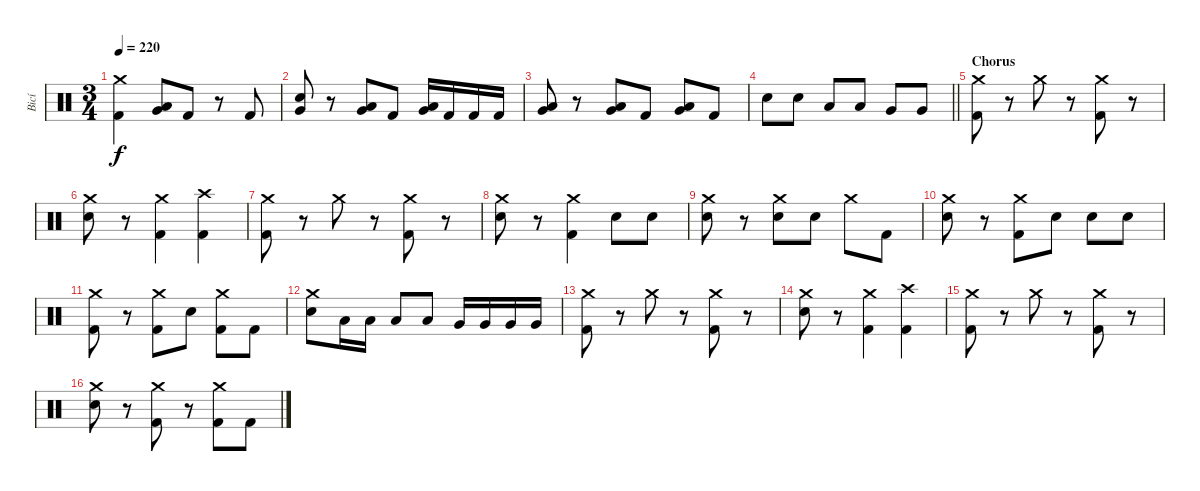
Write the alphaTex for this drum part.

\track ("Bicí" "Bicí") {instrument percussion}
\staff {score}
\articulation defaults
\ts (3 4)
\tempo 220
\clef neutral
\ks c
("Crash medium (hit)" "Kick (hit) 2").4{dy f} ("Low Tom (hit)" "Very Low Tom (hit)").8 "Kick (hit) 2".8 r.8 "Kick (hit) 2".8 |
("Electric Snare (hit)" "Very Low Tom (hit)").8 r.8 ("Low Tom (hit)" "Very Low Tom (hit)").8 "Kick (hit) 2".8 ("Low Tom (hit)" "Very Low Tom (hit)").16 "Kick (hit) 2".16 "Kick (hit) 2".16 "Kick (hit) 2".16 |
("Low Tom (hit)" "Very Low Tom (hit)").8 r.8 ("Low Tom (hit)" "Very Low Tom (hit)").8 "Kick (hit) 2".8 ("Low Tom (hit)" "Very Low Tom (hit)").8 "Kick (hit) 2".8 |
\barLineRight lightlight "Electric Snare (hit)".8 "Electric Snare (hit)".8 "Low Tom (hit)".8 "Low Tom (hit)".8 "Very Low Tom (hit)".8 "Very Low Tom (hit)".8
|
\section ("" "Chorus")
("Crash medium (hit)" "Kick (hit) 2").8 r.8 "Crash medium (hit)".8 r.8 ("Crash medium (hit)" "Kick (hit) 2").8 r.8 |
("Crash medium (hit)" "Electric Snare (hit)").8 r.8 ("Crash medium (hit)" "Kick (hit) 2").4 ("Crash high (hit)" "Kick (hit) 2").4 |
("Crash medium (hit)" "Kick (hit) 2").8 r.8 "Crash medium (hit)".8 r.8 ("Crash medium (hit)" "Kick (hit) 2").8 r.8 |
("Crash medium (hit)" "Electric Snare (hit)").8 r.8 ("Crash medium (hit)" "Kick (hit) 2").4 "Electric Snare (hit)".8 "Electric Snare (hit)".8 |
("Crash medium (hit)" "Electric Snare (hit)").8 r.8 ("Crash medium (hit)" "Electric Snare (hit)").8 "Electric Snare (hit)".8 "Crash medium (hit)".8 "Kick (hit) 2".8 |
("Crash medium (hit)" "Electric Snare (hit)").8 r.8 ("Crash medium (hit)" "Kick (hit) 2").8 "Electric Snare (hit)".8 "Electric Snare (hit)".8 "Electric Snare (hit)".8 |
("Crash medium (hit)" "Kick (hit) 2").8 r.8 ("Crash medium (hit)" "Kick (hit) 2").8 "Electric Snare (hit)".8 ("Crash medium (hit)" "Kick (hit) 2").8 "Kick (hit) 2".8 |
("Crash medium (hit)" "Electric Snare (hit)").8 "Low Tom (hit)".16 "Low Tom (hit)".16 "Low Tom (hit)".8 "Low Tom (hit)".8 "Very Low Tom (hit)".16 "Very Low Tom (hit)".16 "Very Low Tom (hit)".16 "Very Low Tom (hit)".16 |
("Crash medium (hit)" "Kick (hit) 2").8 r.8 "Crash medium (hit)".8 r.8 ("Crash medium (hit)" "Kick (hit) 2").8 r.8 |
("Crash medium (hit)" "Electric Snare (hit)").8 r.8 ("Crash medium (hit)" "Kick (hit) 2").4 ("Crash high (hit)" "Kick (hit) 2").4 |
("Crash medium (hit)" "Kick (hit) 2").8 r.8 "Crash medium (hit)".8 r.8 ("Crash medium (hit)" "Kick (hit) 2").8 r.8 |
("Crash medium (hit)" "Electric Snare (hit)").8 r.8 ("Crash medium (hit)" "Kick (hit) 2").8 r.8 ("Crash medium (hit)" "Kick (hit) 2").8 "Kick (hit) 2".8
